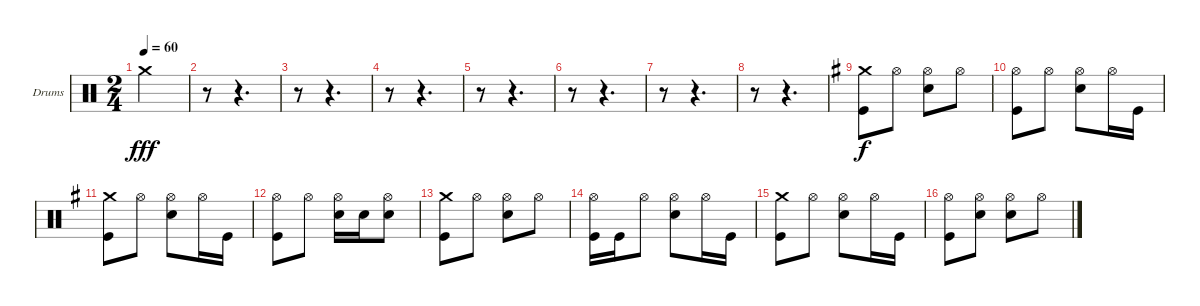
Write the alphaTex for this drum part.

\defaultSystemsLayout 4
\bracketExtendMode groupsimilarinstruments
\firstSystemTrackNameOrientation horizontal
\otherSystemsTrackNameOrientation horizontal
\track ("Drumkit" "Drums") {instrument percussion}
\staff {score}
\articulation defaults
\ts (2 4)
\tempo 60
\clef neutral
\ks aminor "Crash medium (hit)".2{dy fff}
|
r.8 r.4{d} |
r.8 r.4{d} |
r.8 r.4{d} |
r.8 r.4{d} |
r.8 r.4{d} |
r.8 r.4{d} |
r.8 r.4{d} |
\ks eminor
("Crash medium (hit)" "Kick (hit)").8{dy f} "Hi-Hat (open)".8 ("Hi-Hat (open)" "Snare (hit) 2").8 "Hi-Hat (open)".8 |
("Hi-Hat (open)" "Kick (hit)").8 "Hi-Hat (open)".8 ("Hi-Hat (open)" "Snare (hit) 2").8 "Hi-Hat (open)".16 "Kick (hit)".16 |
("Crash medium (hit)" "Kick (hit)").8 "Hi-Hat (open)".8 ("Hi-Hat (open)" "Snare (hit) 2").8 "Hi-Hat (open)".16 "Kick (hit)".16 |
("Hi-Hat (open)" "Kick (hit)").8 "Hi-Hat (open)".8 ("Hi-Hat (open)" "Snare (hit) 2").16 "Snare (hit) 2".16 ("Hi-Hat (open)" "Snare (hit) 2").8 |
("Crash medium (hit)" "Kick (hit)").8 "Hi-Hat (open)".8 ("Hi-Hat (open)" "Snare (hit) 2").8 "Hi-Hat (open)".8 |
("Hi-Hat (open)" "Kick (hit)").16 "Kick (hit)".16 "Hi-Hat (open)".8 ("Hi-Hat (open)" "Snare (hit) 2").8 "Hi-Hat (open)".16 "Kick (hit)".16 |
("Crash medium (hit)" "Kick (hit)").8 "Hi-Hat (open)".8 ("Hi-Hat (open)" "Snare (hit) 2").8 "Hi-Hat (open)".16 "Kick (hit)".16 |
("Hi-Hat (open)" "Kick (hit)").8 ("Hi-Hat (open)" "Snare (hit) 2").8 ("Hi-Hat (open)" "Snare (hit) 2").8 "Hi-Hat (open)".8
